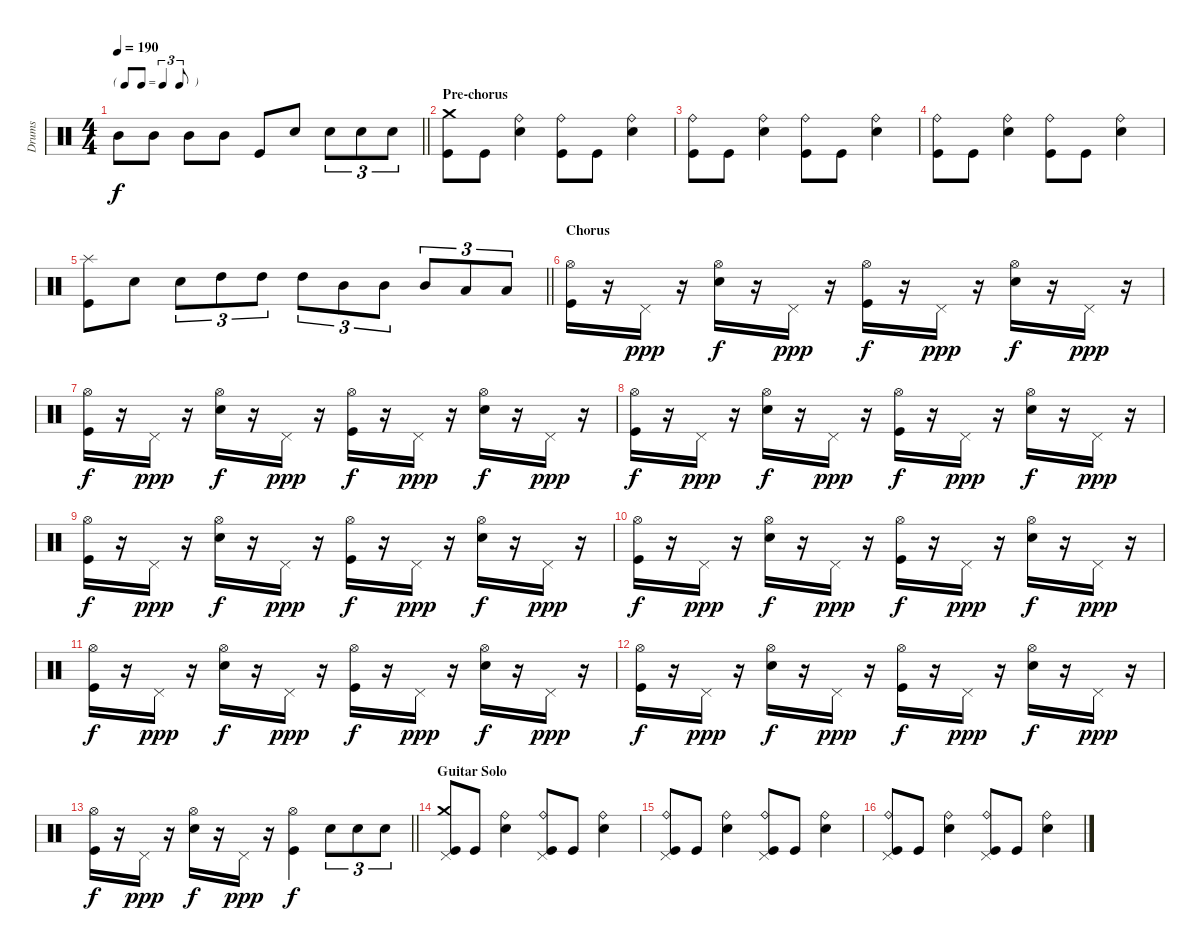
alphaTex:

\track ("Drums" "Drums") {instrument percussion}
\staff {score}
\articulation defaults
\ts (4 4)
\tf triplet8th
\tempo 190
\clef neutral
\barLineRight lightlight
\ks c "Mid Tom (hit)".8{dy f} "Mid Tom (hit)".8 "Mid Tom (hit)".8 "Mid Tom (hit)".8 "Kick (hit)".8 "Electric Snare (hit)".8 "Electric Snare (hit)".8{tu (3 2)} "Electric Snare (hit)".8{tu (3 2)} "Electric Snare (hit)".8{tu (3 2)}
|
\section ("" "Pre-chorus")
("Crash medium (hit)" "Kick (hit)").8 "Kick (hit)".8 ("Ride (bell)" "Electric Snare (hit)").4 ("Ride (bell)" "Kick (hit)").8 "Kick (hit)".8 ("Ride (bell)" "Electric Snare (hit)").4 |
("Ride (bell)" "Kick (hit)").8 "Kick (hit)".8 ("Ride (bell)" "Electric Snare (hit)").4 ("Ride (bell)" "Kick (hit)").8 "Kick (hit)".8 ("Ride (bell)" "Electric Snare (hit)").4 |
("Ride (bell)" "Kick (hit)").8 "Kick (hit)".8 ("Ride (bell)" "Electric Snare (hit)").4 ("Ride (bell)" "Kick (hit)").8 "Kick (hit)".8 ("Ride (bell)" "Electric Snare (hit)").4 |
\barLineRight lightlight
("Splash (hit)" "Kick (hit)").8 "Electric Snare (hit)".8 "Electric Snare (hit)".8{tu (3 2)} "High Tom (hit)".8{tu (3 2)} "High Tom (hit)".8{tu (3 2)} "High Tom (hit)".8{tu (3 2)} "Mid Tom (hit)".8{tu (3 2)} "Mid Tom (hit)".8{tu (3 2)} "Mid Tom (hit)".8{tu (3 2)} "Low Tom (hit)".8{tu (3 2)} "Low Tom (hit)".8{tu (3 2)} |
\section ("" "Chorus")
("Hi-Hat (open)" "Kick (hit)").16 r.16 "Pedal Hi-Hat (hit)".16{dy ppp} r.16 ("Hi-Hat (open)" "Electric Snare (hit)").16{dy f} r.16 "Pedal Hi-Hat (hit)".16{dy ppp} r.16 ("Hi-Hat (open)" "Kick (hit)").16{dy f} r.16 "Pedal Hi-Hat (hit)".16{dy ppp} r.16 ("Hi-Hat (open)" "Electric Snare (hit)").16{dy f} r.16 "Pedal Hi-Hat (hit)".16{dy ppp} r.16 |
("Hi-Hat (open)" "Kick (hit)").16{dy f} r.16 "Pedal Hi-Hat (hit)".16{dy ppp} r.16 ("Hi-Hat (open)" "Electric Snare (hit)").16{dy f} r.16 "Pedal Hi-Hat (hit)".16{dy ppp} r.16 ("Hi-Hat (open)" "Kick (hit)").16{dy f} r.16 "Pedal Hi-Hat (hit)".16{dy ppp} r.16 ("Hi-Hat (open)" "Electric Snare (hit)").16{dy f} r.16 "Pedal Hi-Hat (hit)".16{dy ppp} r.16 |
("Hi-Hat (open)" "Kick (hit)").16{dy f} r.16 "Pedal Hi-Hat (hit)".16{dy ppp} r.16 ("Hi-Hat (open)" "Electric Snare (hit)").16{dy f} r.16 "Pedal Hi-Hat (hit)".16{dy ppp} r.16 ("Hi-Hat (open)" "Kick (hit)").16{dy f} r.16 "Pedal Hi-Hat (hit)".16{dy ppp} r.16 ("Hi-Hat (open)" "Electric Snare (hit)").16{dy f} r.16 "Pedal Hi-Hat (hit)".16{dy ppp} r.16 |
("Hi-Hat (open)" "Kick (hit)").16{dy f} r.16 "Pedal Hi-Hat (hit)".16{dy ppp} r.16 ("Hi-Hat (open)" "Electric Snare (hit)").16{dy f} r.16 "Pedal Hi-Hat (hit)".16{dy ppp} r.16 ("Hi-Hat (open)" "Kick (hit)").16{dy f} r.16 "Pedal Hi-Hat (hit)".16{dy ppp} r.16 ("Hi-Hat (open)" "Electric Snare (hit)").16{dy f} r.16 "Pedal Hi-Hat (hit)".16{dy ppp} r.16 |
("Hi-Hat (open)" "Kick (hit)").16{dy f} r.16 "Pedal Hi-Hat (hit)".16{dy ppp} r.16 ("Hi-Hat (open)" "Electric Snare (hit)").16{dy f} r.16 "Pedal Hi-Hat (hit)".16{dy ppp} r.16 ("Hi-Hat (open)" "Kick (hit)").16{dy f} r.16 "Pedal Hi-Hat (hit)".16{dy ppp} r.16 ("Hi-Hat (open)" "Electric Snare (hit)").16{dy f} r.16 "Pedal Hi-Hat (hit)".16{dy ppp} r.16 |
("Hi-Hat (open)" "Kick (hit)").16{dy f} r.16 "Pedal Hi-Hat (hit)".16{dy ppp} r.16 ("Hi-Hat (open)" "Electric Snare (hit)").16{dy f} r.16 "Pedal Hi-Hat (hit)".16{dy ppp} r.16 ("Hi-Hat (open)" "Kick (hit)").16{dy f} r.16 "Pedal Hi-Hat (hit)".16{dy ppp} r.16 ("Hi-Hat (open)" "Electric Snare (hit)").16{dy f} r.16 "Pedal Hi-Hat (hit)".16{dy ppp} r.16 |
("Hi-Hat (open)" "Kick (hit)").16{dy f} r.16 "Pedal Hi-Hat (hit)".16{dy ppp} r.16 ("Hi-Hat (open)" "Electric Snare (hit)").16{dy f} r.16 "Pedal Hi-Hat (hit)".16{dy ppp} r.16 ("Hi-Hat (open)" "Kick (hit)").16{dy f} r.16 "Pedal Hi-Hat (hit)".16{dy ppp} r.16 ("Hi-Hat (open)" "Electric Snare (hit)").16{dy f} r.16 "Pedal Hi-Hat (hit)".16{dy ppp} r.16 |
\barLineRight lightlight
("Hi-Hat (open)" "Kick (hit)").16{dy f} r.16 "Pedal Hi-Hat (hit)".16{dy ppp} r.16 ("Hi-Hat (open)" "Electric Snare (hit)").16{dy f} r.16 "Pedal Hi-Hat (hit)".16{dy ppp} r.16 ("Hi-Hat (open)" "Kick (hit)").4{dy f} "Electric Snare (hit)".8{tu (3 2)} "Electric Snare (hit)".8{tu (3 2)} "Electric Snare (hit)".8{tu (3 2)} |
\section ("" "Guitar Solo")
("Crash medium (hit)" "Pedal Hi-Hat (hit)" "Kick (hit)").8 "Kick (hit)".8 ("Ride (bell)" "Electric Snare (hit)").4 ("Ride (bell)" "Pedal Hi-Hat (hit)" "Kick (hit)").8 "Kick (hit)".8 ("Ride (bell)" "Electric Snare (hit)").4 |
("Ride (bell)" "Pedal Hi-Hat (hit)" "Kick (hit)").8 "Kick (hit)".8 ("Ride (bell)" "Electric Snare (hit)").4 ("Ride (bell)" "Pedal Hi-Hat (hit)" "Kick (hit)").8 "Kick (hit)".8 ("Ride (bell)" "Electric Snare (hit)").4 |
("Ride (bell)" "Pedal Hi-Hat (hit)" "Kick (hit)").8 "Kick (hit)".8 ("Ride (bell)" "Electric Snare (hit)").4 ("Ride (bell)" "Pedal Hi-Hat (hit)" "Kick (hit)").8 "Kick (hit)".8 ("Ride (bell)" "Electric Snare (hit)").4
